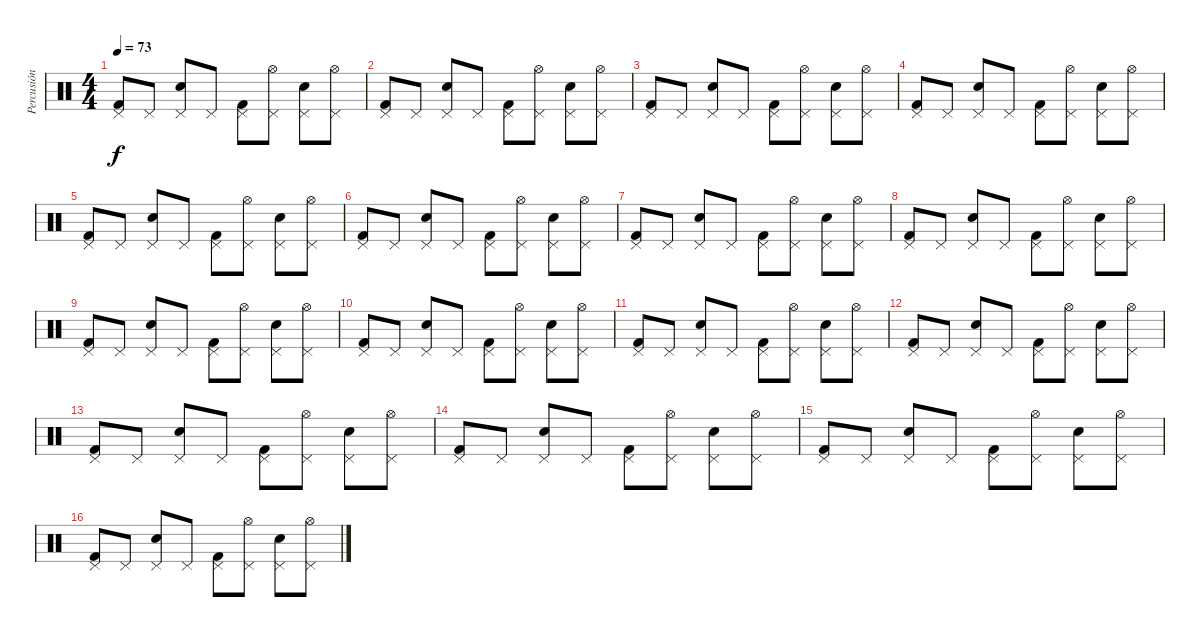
\track ("Percusión" "Percusión") {instrument percussion}
\staff {score}
\articulation defaults
\ts (4 4)
\tempo 73
\clef neutral
\ks c
("Pedal Hi-Hat (hit)" "Kick (hit) 2").8{dy f} "Pedal Hi-Hat (hit)".8 ("Pedal Hi-Hat (hit)" "Snare (hit) 2").8 "Pedal Hi-Hat (hit)".8 ("Pedal Hi-Hat (hit)" "Kick (hit) 2").8 ("Pedal Hi-Hat (hit)" "Hi-Hat (open)").8 ("Pedal Hi-Hat (hit)" "Snare (hit) 2").8 ("Pedal Hi-Hat (hit)" "Hi-Hat (open)").8 |
("Pedal Hi-Hat (hit)" "Kick (hit) 2").8 "Pedal Hi-Hat (hit)".8 ("Pedal Hi-Hat (hit)" "Snare (hit) 2").8 "Pedal Hi-Hat (hit)".8 ("Pedal Hi-Hat (hit)" "Kick (hit) 2").8 ("Pedal Hi-Hat (hit)" "Hi-Hat (open)").8 ("Pedal Hi-Hat (hit)" "Snare (hit) 2").8 ("Pedal Hi-Hat (hit)" "Hi-Hat (open)").8 |
("Pedal Hi-Hat (hit)" "Kick (hit) 2").8 "Pedal Hi-Hat (hit)".8 ("Pedal Hi-Hat (hit)" "Snare (hit) 2").8 "Pedal Hi-Hat (hit)".8 ("Pedal Hi-Hat (hit)" "Kick (hit) 2").8 ("Pedal Hi-Hat (hit)" "Hi-Hat (open)").8 ("Pedal Hi-Hat (hit)" "Snare (hit) 2").8 ("Pedal Hi-Hat (hit)" "Hi-Hat (open)").8 |
("Pedal Hi-Hat (hit)" "Kick (hit) 2").8 "Pedal Hi-Hat (hit)".8 ("Pedal Hi-Hat (hit)" "Snare (hit) 2").8 "Pedal Hi-Hat (hit)".8 ("Pedal Hi-Hat (hit)" "Kick (hit) 2").8 ("Pedal Hi-Hat (hit)" "Hi-Hat (open)").8 ("Pedal Hi-Hat (hit)" "Snare (hit) 2").8 ("Pedal Hi-Hat (hit)" "Hi-Hat (open)").8 |
("Pedal Hi-Hat (hit)" "Kick (hit) 2").8 "Pedal Hi-Hat (hit)".8 ("Pedal Hi-Hat (hit)" "Snare (hit) 2").8 "Pedal Hi-Hat (hit)".8 ("Pedal Hi-Hat (hit)" "Kick (hit) 2").8 ("Pedal Hi-Hat (hit)" "Hi-Hat (open)").8 ("Pedal Hi-Hat (hit)" "Snare (hit) 2").8 ("Pedal Hi-Hat (hit)" "Hi-Hat (open)").8 |
("Pedal Hi-Hat (hit)" "Kick (hit) 2").8 "Pedal Hi-Hat (hit)".8 ("Pedal Hi-Hat (hit)" "Snare (hit) 2").8 "Pedal Hi-Hat (hit)".8 ("Pedal Hi-Hat (hit)" "Kick (hit) 2").8 ("Pedal Hi-Hat (hit)" "Hi-Hat (open)").8 ("Pedal Hi-Hat (hit)" "Snare (hit) 2").8 ("Pedal Hi-Hat (hit)" "Hi-Hat (open)").8 |
("Pedal Hi-Hat (hit)" "Kick (hit) 2").8 "Pedal Hi-Hat (hit)".8 ("Pedal Hi-Hat (hit)" "Snare (hit) 2").8 "Pedal Hi-Hat (hit)".8 ("Pedal Hi-Hat (hit)" "Kick (hit) 2").8 ("Pedal Hi-Hat (hit)" "Hi-Hat (open)").8 ("Pedal Hi-Hat (hit)" "Snare (hit) 2").8 ("Pedal Hi-Hat (hit)" "Hi-Hat (open)").8 |
("Pedal Hi-Hat (hit)" "Kick (hit) 2").8 "Pedal Hi-Hat (hit)".8 ("Pedal Hi-Hat (hit)" "Snare (hit) 2").8 "Pedal Hi-Hat (hit)".8 ("Pedal Hi-Hat (hit)" "Kick (hit) 2").8 ("Pedal Hi-Hat (hit)" "Hi-Hat (open)").8 ("Pedal Hi-Hat (hit)" "Snare (hit) 2").8 ("Pedal Hi-Hat (hit)" "Hi-Hat (open)").8 |
("Pedal Hi-Hat (hit)" "Kick (hit) 2").8 "Pedal Hi-Hat (hit)".8 ("Pedal Hi-Hat (hit)" "Snare (hit) 2").8 "Pedal Hi-Hat (hit)".8 ("Pedal Hi-Hat (hit)" "Kick (hit) 2").8 ("Pedal Hi-Hat (hit)" "Hi-Hat (open)").8 ("Pedal Hi-Hat (hit)" "Snare (hit) 2").8 ("Pedal Hi-Hat (hit)" "Hi-Hat (open)").8 |
("Pedal Hi-Hat (hit)" "Kick (hit) 2").8 "Pedal Hi-Hat (hit)".8 ("Pedal Hi-Hat (hit)" "Snare (hit) 2").8 "Pedal Hi-Hat (hit)".8 ("Pedal Hi-Hat (hit)" "Kick (hit) 2").8 ("Pedal Hi-Hat (hit)" "Hi-Hat (open)").8 ("Pedal Hi-Hat (hit)" "Snare (hit) 2").8 ("Pedal Hi-Hat (hit)" "Hi-Hat (open)").8 |
("Pedal Hi-Hat (hit)" "Kick (hit) 2").8 "Pedal Hi-Hat (hit)".8 ("Pedal Hi-Hat (hit)" "Snare (hit) 2").8 "Pedal Hi-Hat (hit)".8 ("Pedal Hi-Hat (hit)" "Kick (hit) 2").8 ("Pedal Hi-Hat (hit)" "Hi-Hat (open)").8 ("Pedal Hi-Hat (hit)" "Snare (hit) 2").8 ("Pedal Hi-Hat (hit)" "Hi-Hat (open)").8 |
("Pedal Hi-Hat (hit)" "Kick (hit) 2").8 "Pedal Hi-Hat (hit)".8 ("Pedal Hi-Hat (hit)" "Snare (hit) 2").8 "Pedal Hi-Hat (hit)".8 ("Pedal Hi-Hat (hit)" "Kick (hit) 2").8 ("Pedal Hi-Hat (hit)" "Hi-Hat (open)").8 ("Pedal Hi-Hat (hit)" "Snare (hit) 2").8 ("Pedal Hi-Hat (hit)" "Hi-Hat (open)").8 |
("Pedal Hi-Hat (hit)" "Kick (hit) 2").8 "Pedal Hi-Hat (hit)".8 ("Pedal Hi-Hat (hit)" "Snare (hit) 2").8 "Pedal Hi-Hat (hit)".8 ("Pedal Hi-Hat (hit)" "Kick (hit) 2").8 ("Pedal Hi-Hat (hit)" "Hi-Hat (open)").8 ("Pedal Hi-Hat (hit)" "Snare (hit) 2").8 ("Pedal Hi-Hat (hit)" "Hi-Hat (open)").8 |
("Pedal Hi-Hat (hit)" "Kick (hit) 2").8 "Pedal Hi-Hat (hit)".8 ("Pedal Hi-Hat (hit)" "Snare (hit) 2").8 "Pedal Hi-Hat (hit)".8 ("Pedal Hi-Hat (hit)" "Kick (hit) 2").8 ("Pedal Hi-Hat (hit)" "Hi-Hat (open)").8 ("Pedal Hi-Hat (hit)" "Snare (hit) 2").8 ("Pedal Hi-Hat (hit)" "Hi-Hat (open)").8 |
("Pedal Hi-Hat (hit)" "Kick (hit) 2").8 "Pedal Hi-Hat (hit)".8 ("Pedal Hi-Hat (hit)" "Snare (hit) 2").8 "Pedal Hi-Hat (hit)".8 ("Pedal Hi-Hat (hit)" "Kick (hit) 2").8 ("Pedal Hi-Hat (hit)" "Hi-Hat (open)").8 ("Pedal Hi-Hat (hit)" "Snare (hit) 2").8 ("Pedal Hi-Hat (hit)" "Hi-Hat (open)").8 |
("Pedal Hi-Hat (hit)" "Kick (hit) 2").8 "Pedal Hi-Hat (hit)".8 ("Pedal Hi-Hat (hit)" "Snare (hit) 2").8 "Pedal Hi-Hat (hit)".8 ("Pedal Hi-Hat (hit)" "Kick (hit) 2").8 ("Pedal Hi-Hat (hit)" "Hi-Hat (open)").8 ("Pedal Hi-Hat (hit)" "Snare (hit) 2").8 ("Pedal Hi-Hat (hit)" "Hi-Hat (open)").8
